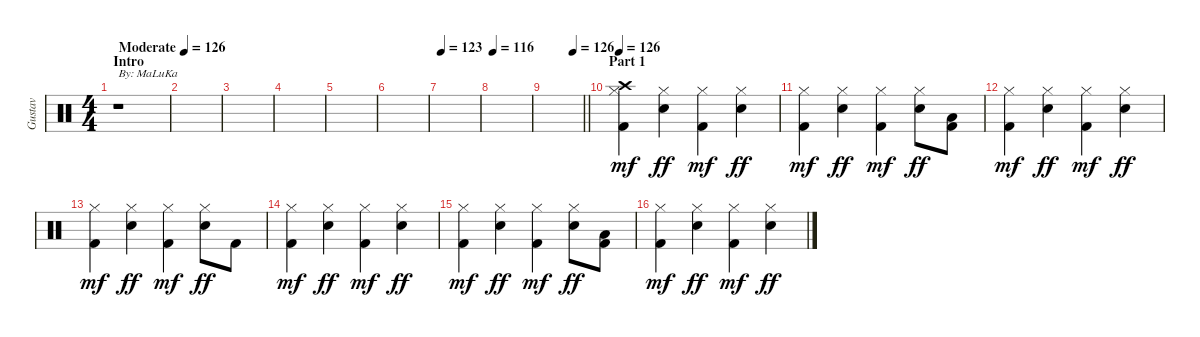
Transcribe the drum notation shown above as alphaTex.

\track ("Gustav" "Gustav") {instrument percussion}
\staff {score}
\articulation defaults
\ts (4 4)
\section ("" "Intro")
\tempo (126 "Moderate")
\clef neutral
\ks c
r.1{txt "By: MaLuKa" dy mf} |
|
|
|
|
|
\tempo 123
|
\tempo 116
|
\tempo (126 0.75)
\barLineRight lightlight
|
\section ("" "Part 1")
\tempo 126
("Crash high (hit)" "Hi-Hat (closed)" "Kick (hit) 2").4 ("Hi-Hat (closed)" "Snare (hit) 2").4{dy ff} ("Hi-Hat (closed)" "Kick (hit) 2").4{dy mf} ("Hi-Hat (closed)" "Snare (hit) 2").4{dy ff} |
("Hi-Hat (closed)" "Kick (hit) 2").4{dy mf} ("Hi-Hat (closed)" "Snare (hit) 2").4{dy ff} ("Hi-Hat (closed)" "Kick (hit) 2").4{dy mf} ("Hi-Hat (closed)" "Snare (hit) 2").8{dy ff} ("Low Tom (hit)" "Kick (hit) 2").8 |
("Hi-Hat (closed)" "Kick (hit) 2").4{dy mf} ("Hi-Hat (closed)" "Snare (hit) 2").4{dy ff} ("Hi-Hat (closed)" "Kick (hit) 2").4{dy mf} ("Hi-Hat (closed)" "Snare (hit) 2").4{dy ff} |
("Hi-Hat (closed)" "Kick (hit) 2").4{dy mf} ("Hi-Hat (closed)" "Snare (hit) 2").4{dy ff} ("Hi-Hat (closed)" "Kick (hit) 2").4{dy mf} ("Hi-Hat (closed)" "Snare (hit) 2").8{dy ff} "Kick (hit) 2".8 |
("Hi-Hat (closed)" "Kick (hit) 2").4{dy mf} ("Hi-Hat (closed)" "Snare (hit) 2").4{dy ff} ("Hi-Hat (closed)" "Kick (hit) 2").4{dy mf} ("Hi-Hat (closed)" "Snare (hit) 2").4{dy ff} |
("Hi-Hat (closed)" "Kick (hit) 2").4{dy mf} ("Hi-Hat (closed)" "Snare (hit) 2").4{dy ff} ("Hi-Hat (closed)" "Kick (hit) 2").4{dy mf} ("Hi-Hat (closed)" "Snare (hit) 2").8{dy ff} ("Low Tom (hit)" "Kick (hit) 2").8 |
("Hi-Hat (closed)" "Kick (hit) 2").4{dy mf} ("Hi-Hat (closed)" "Snare (hit) 2").4{dy ff} ("Hi-Hat (closed)" "Kick (hit) 2").4{dy mf} ("Hi-Hat (closed)" "Snare (hit) 2").4{dy ff}
